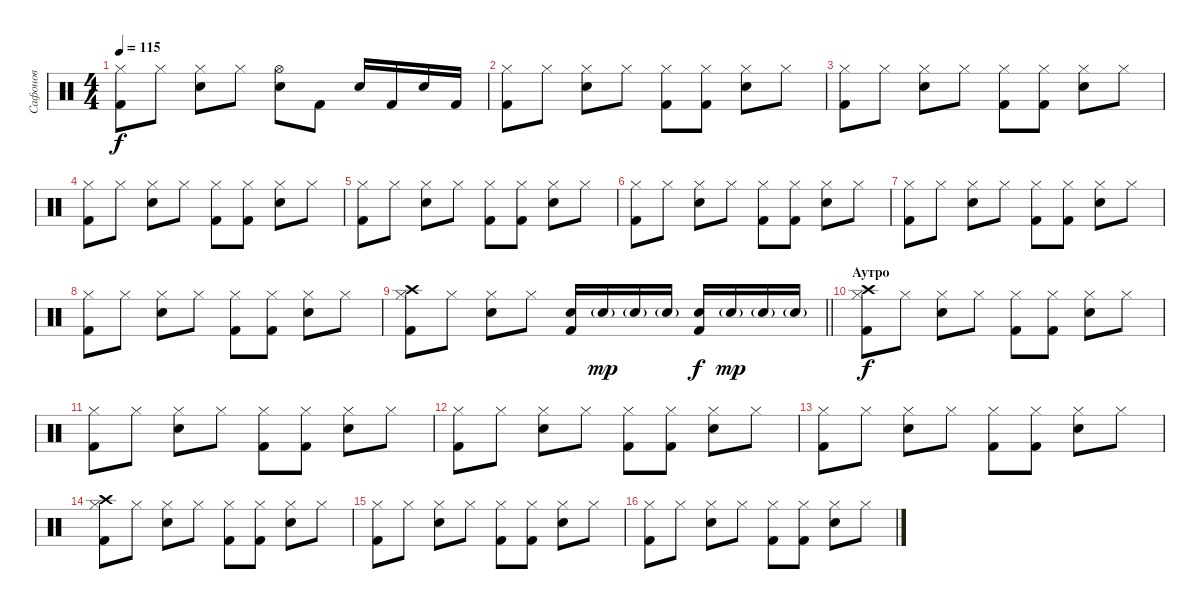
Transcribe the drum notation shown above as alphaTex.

\track ("Сафонов" "Сафонов") {instrument percussion}
\staff {score}
\articulation defaults
\ts (4 4)
\tempo 115
\clef neutral
\ks c
("Hi-Hat (closed)" "Kick (hit) 2").8{dy f} "Hi-Hat (closed)".8 ("Hi-Hat (closed)" "Electric Snare (hit)").8 "Hi-Hat (closed)".8 ("Hi-Hat (open)" "Electric Snare (hit)").8 "Kick (hit) 2".8 "Electric Snare (hit)".16 "Kick (hit) 2".16 "Electric Snare (hit)".16 "Kick (hit) 2".16 |
("Hi-Hat (closed)" "Kick (hit) 2").8 "Hi-Hat (closed)".8 ("Hi-Hat (closed)" "Electric Snare (hit)").8 "Hi-Hat (closed)".8 ("Hi-Hat (closed)" "Kick (hit) 2").8 ("Hi-Hat (closed)" "Kick (hit) 2").8 ("Hi-Hat (closed)" "Electric Snare (hit)").8 "Hi-Hat (closed)".8 |
("Hi-Hat (closed)" "Kick (hit) 2").8 "Hi-Hat (closed)".8 ("Hi-Hat (closed)" "Electric Snare (hit)").8 "Hi-Hat (closed)".8 ("Hi-Hat (closed)" "Kick (hit) 2").8 ("Hi-Hat (closed)" "Kick (hit) 2").8 ("Hi-Hat (closed)" "Electric Snare (hit)").8 "Hi-Hat (closed)".8 |
("Hi-Hat (closed)" "Kick (hit) 2").8 "Hi-Hat (closed)".8 ("Hi-Hat (closed)" "Electric Snare (hit)").8 "Hi-Hat (closed)".8 ("Hi-Hat (closed)" "Kick (hit) 2").8 ("Hi-Hat (closed)" "Kick (hit) 2").8 ("Hi-Hat (closed)" "Electric Snare (hit)").8 "Hi-Hat (closed)".8 |
("Hi-Hat (closed)" "Kick (hit) 2").8 "Hi-Hat (closed)".8 ("Hi-Hat (closed)" "Electric Snare (hit)").8 "Hi-Hat (closed)".8 ("Hi-Hat (closed)" "Kick (hit) 2").8 ("Hi-Hat (closed)" "Kick (hit) 2").8 ("Hi-Hat (closed)" "Electric Snare (hit)").8 "Hi-Hat (closed)".8 |
("Hi-Hat (closed)" "Kick (hit) 2").8 "Hi-Hat (closed)".8 ("Hi-Hat (closed)" "Electric Snare (hit)").8 "Hi-Hat (closed)".8 ("Hi-Hat (closed)" "Kick (hit) 2").8 ("Hi-Hat (closed)" "Kick (hit) 2").8 ("Hi-Hat (closed)" "Electric Snare (hit)").8 "Hi-Hat (closed)".8 |
("Hi-Hat (closed)" "Kick (hit) 2").8 "Hi-Hat (closed)".8 ("Hi-Hat (closed)" "Electric Snare (hit)").8 "Hi-Hat (closed)".8 ("Hi-Hat (closed)" "Kick (hit) 2").8 ("Hi-Hat (closed)" "Kick (hit) 2").8 ("Hi-Hat (closed)" "Electric Snare (hit)").8 "Hi-Hat (closed)".8 |
("Hi-Hat (closed)" "Kick (hit) 2").8 "Hi-Hat (closed)".8 ("Hi-Hat (closed)" "Electric Snare (hit)").8 "Hi-Hat (closed)".8 ("Hi-Hat (closed)" "Kick (hit) 2").8 ("Hi-Hat (closed)" "Kick (hit) 2").8 ("Hi-Hat (closed)" "Electric Snare (hit)").8 "Hi-Hat (closed)".8 |
\barLineRight lightlight
("Crash high (hit)" "Hi-Hat (closed)" "Kick (hit) 2").8 "Hi-Hat (closed)".8 ("Hi-Hat (closed)" "Electric Snare (hit)").8 "Hi-Hat (closed)".8 ("Electric Snare (hit)" "Kick (hit) 2").16 "Electric Snare (hit)"{g}.16{dy mp} "Electric Snare (hit)"{g}.16 "Electric Snare (hit)"{g}.16 ("Electric Snare (hit)" "Kick (hit) 2").16{dy f} "Electric Snare (hit)"{g}.16{dy mp} "Electric Snare (hit)"{g}.16 "Electric Snare (hit)"{g}.16 |
\section ("" "Аутро")
("Crash high (hit)" "Hi-Hat (closed)" "Kick (hit) 2").8{dy f} "Hi-Hat (closed)".8 ("Hi-Hat (closed)" "Electric Snare (hit)").8 "Hi-Hat (closed)".8 ("Hi-Hat (closed)" "Kick (hit) 2").8 ("Hi-Hat (closed)" "Kick (hit) 2").8 ("Hi-Hat (closed)" "Electric Snare (hit)").8 "Hi-Hat (closed)".8 |
("Hi-Hat (closed)" "Kick (hit) 2").8 "Hi-Hat (closed)".8 ("Hi-Hat (closed)" "Electric Snare (hit)").8 "Hi-Hat (closed)".8 ("Hi-Hat (closed)" "Kick (hit) 2").8 ("Hi-Hat (closed)" "Kick (hit) 2").8 ("Hi-Hat (closed)" "Electric Snare (hit)").8 "Hi-Hat (closed)".8 |
("Hi-Hat (closed)" "Kick (hit) 2").8 "Hi-Hat (closed)".8 ("Hi-Hat (closed)" "Electric Snare (hit)").8 "Hi-Hat (closed)".8 ("Hi-Hat (closed)" "Kick (hit) 2").8 ("Hi-Hat (closed)" "Kick (hit) 2").8 ("Hi-Hat (closed)" "Electric Snare (hit)").8 "Hi-Hat (closed)".8 |
("Hi-Hat (closed)" "Kick (hit) 2").8 "Hi-Hat (closed)".8 ("Hi-Hat (closed)" "Electric Snare (hit)").8 "Hi-Hat (closed)".8 ("Hi-Hat (closed)" "Kick (hit) 2").8 ("Hi-Hat (closed)" "Kick (hit) 2").8 ("Hi-Hat (closed)" "Electric Snare (hit)").8 "Hi-Hat (closed)".8 |
("Crash high (hit)" "Hi-Hat (closed)" "Kick (hit) 2").8 "Hi-Hat (closed)".8 ("Hi-Hat (closed)" "Electric Snare (hit)").8 "Hi-Hat (closed)".8 ("Hi-Hat (closed)" "Kick (hit) 2").8 ("Hi-Hat (closed)" "Kick (hit) 2").8 ("Hi-Hat (closed)" "Electric Snare (hit)").8 "Hi-Hat (closed)".8 |
("Hi-Hat (closed)" "Kick (hit) 2").8 "Hi-Hat (closed)".8 ("Hi-Hat (closed)" "Electric Snare (hit)").8 "Hi-Hat (closed)".8 ("Hi-Hat (closed)" "Kick (hit) 2").8 ("Hi-Hat (closed)" "Kick (hit) 2").8 ("Hi-Hat (closed)" "Electric Snare (hit)").8 "Hi-Hat (closed)".8 |
("Hi-Hat (closed)" "Kick (hit) 2").8 "Hi-Hat (closed)".8 ("Hi-Hat (closed)" "Electric Snare (hit)").8 "Hi-Hat (closed)".8 ("Hi-Hat (closed)" "Kick (hit) 2").8 ("Hi-Hat (closed)" "Kick (hit) 2").8 ("Hi-Hat (closed)" "Electric Snare (hit)").8 "Hi-Hat (closed)".8
